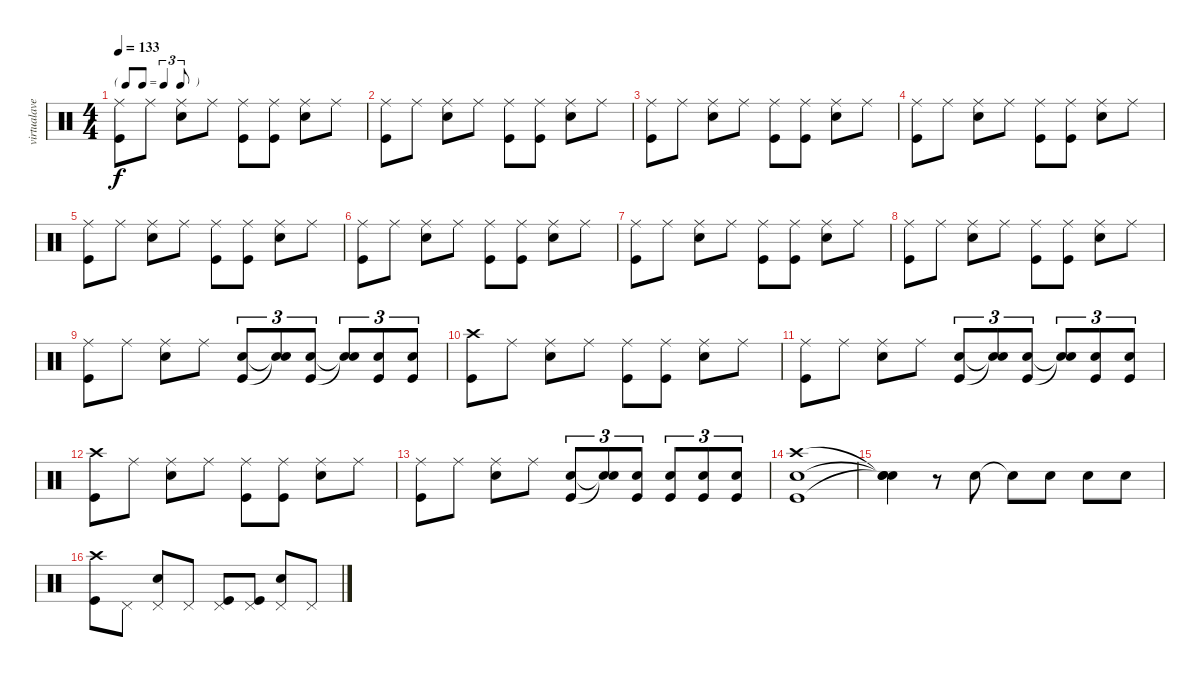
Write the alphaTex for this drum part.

\track ("virtualave.net" "virtualave") {instrument percussion}
\staff {score}
\articulation defaults
\ts (4 4)
\tf triplet8th
\tempo 133
\clef neutral
\ks c
("Ride (middle)" "Kick (hit)").8{dy f} "Ride (middle)".8 ("Ride (middle)" "Snare (hit) 2").8 "Ride (middle)".8 ("Ride (middle)" "Kick (hit)").8 ("Ride (middle)" "Kick (hit)").8 ("Ride (middle)" "Snare (hit) 2").8 "Ride (middle)".8 |
("Ride (middle)" "Kick (hit)").8 "Ride (middle)".8 ("Ride (middle)" "Snare (hit) 2").8 "Ride (middle)".8 ("Ride (middle)" "Kick (hit)").8 ("Ride (middle)" "Kick (hit)").8 ("Ride (middle)" "Snare (hit) 2").8 "Ride (middle)".8 |
("Ride (middle)" "Kick (hit)").8 "Ride (middle)".8 ("Ride (middle)" "Snare (hit) 2").8 "Ride (middle)".8 ("Ride (middle)" "Kick (hit)").8 ("Ride (middle)" "Kick (hit)").8 ("Ride (middle)" "Snare (hit) 2").8 "Ride (middle)".8 |
("Ride (middle)" "Kick (hit)").8 "Ride (middle)".8 ("Ride (middle)" "Snare (hit) 2").8 "Ride (middle)".8 ("Ride (middle)" "Kick (hit)").8 ("Ride (middle)" "Kick (hit)").8 ("Ride (middle)" "Snare (hit) 2").8 "Ride (middle)".8 |
("Ride (middle)" "Kick (hit)").8 "Ride (middle)".8 ("Ride (middle)" "Snare (hit) 2").8 "Ride (middle)".8 ("Ride (middle)" "Kick (hit)").8 ("Ride (middle)" "Kick (hit)").8 ("Ride (middle)" "Snare (hit) 2").8 "Ride (middle)".8 |
("Ride (middle)" "Kick (hit)").8 "Ride (middle)".8 ("Ride (middle)" "Snare (hit) 2").8 "Ride (middle)".8 ("Ride (middle)" "Kick (hit)").8 ("Ride (middle)" "Kick (hit)").8 ("Ride (middle)" "Snare (hit) 2").8 "Ride (middle)".8 |
("Ride (middle)" "Kick (hit)").8 "Ride (middle)".8 ("Ride (middle)" "Snare (hit) 2").8 "Ride (middle)".8 ("Ride (middle)" "Kick (hit)").8 ("Ride (middle)" "Kick (hit)").8 ("Ride (middle)" "Snare (hit) 2").8 "Ride (middle)".8 |
("Ride (middle)" "Kick (hit)").8 "Ride (middle)".8 ("Ride (middle)" "Snare (hit) 2").8 "Ride (middle)".8 ("Ride (middle)" "Kick (hit)").8 ("Ride (middle)" "Kick (hit)").8 ("Ride (middle)" "Snare (hit) 2").8 "Ride (middle)".8 |
("Ride (middle)" "Kick (hit)").8 "Ride (middle)".8 ("Ride (middle)" "Snare (hit) 2").8 "Ride (middle)".8 ("Snare (hit) 2" "Kick (hit)").8{tu (3 2)} ("Snare (hit)"{t} "Snare (hit)"{t}).8{tu (3 2)} ("Snare (hit) 2" "Kick (hit)").8{tu (3 2)} ("Snare (hit)"{t} "Snare (hit)"{t}).8{tu (3 2)} ("Snare (hit) 2" "Kick (hit)").8{tu (3 2)} ("Snare (hit) 2" "Kick (hit)").8{tu (3 2)} |
("Crash high (hit)" "Kick (hit)").8 "Ride (middle)".8 ("Ride (middle)" "Snare (hit) 2").8 "Ride (middle)".8 ("Ride (middle)" "Kick (hit)").8 ("Ride (middle)" "Kick (hit)").8 ("Ride (middle)" "Snare (hit) 2").8 "Ride (middle)".8 |
("Ride (middle)" "Kick (hit)").8 "Ride (middle)".8 ("Ride (middle)" "Snare (hit) 2").8 "Ride (middle)".8 ("Snare (hit) 2" "Kick (hit)").8{tu (3 2)} ("Snare (hit)"{t} "Snare (hit)"{t}).8{tu (3 2)} ("Snare (hit) 2" "Kick (hit)").8{tu (3 2)} ("Snare (hit)"{t} "Snare (hit)"{t}).8{tu (3 2)} ("Snare (hit) 2" "Kick (hit)").8{tu (3 2)} ("Snare (hit) 2" "Kick (hit)").8{tu (3 2)} |
("Crash high (hit)" "Kick (hit)").8 "Ride (middle)".8 ("Ride (middle)" "Snare (hit) 2").8 "Ride (middle)".8 ("Ride (middle)" "Kick (hit)").8 ("Ride (middle)" "Kick (hit)").8 ("Ride (middle)" "Snare (hit) 2").8 "Ride (middle)".8 |
("Ride (middle)" "Kick (hit)").8 "Ride (middle)".8 ("Ride (middle)" "Snare (hit) 2").8 "Ride (middle)".8 ("Snare (hit) 2" "Kick (hit)").8{tu (3 2)} ("Snare (hit)"{t} "Snare (hit)"{t}).8{tu (3 2)} ("Snare (hit) 2" "Kick (hit)").8{tu (3 2)} ("Snare (hit) 2" "Kick (hit)").8{tu (3 2)} ("Snare (hit) 2" "Kick (hit)").8{tu (3 2)} ("Snare (hit) 2" "Kick (hit)").8{tu (3 2)} |
("Crash high (hit)" "Kick (hit)" "Snare (hit) 2").1 |
("Snare (hit)"{t} "Snare (hit)"{t} "Snare (hit)"{t}).4 r.8 "Snare (hit) 2".8 "Snare (hit)"{t}.8 "Snare (hit) 2".8 "Snare (hit) 2".8 "Snare (hit) 2".8 |
("Crash high (hit)" "Kick (hit)").8 "Pedal Hi-Hat (hit)".8 ("Pedal Hi-Hat (hit)" "Snare (hit) 2").8 "Pedal Hi-Hat (hit)".8 ("Pedal Hi-Hat (hit)" "Kick (hit)").8 ("Pedal Hi-Hat (hit)" "Kick (hit)").8 ("Pedal Hi-Hat (hit)" "Snare (hit) 2").8 "Pedal Hi-Hat (hit)".8
